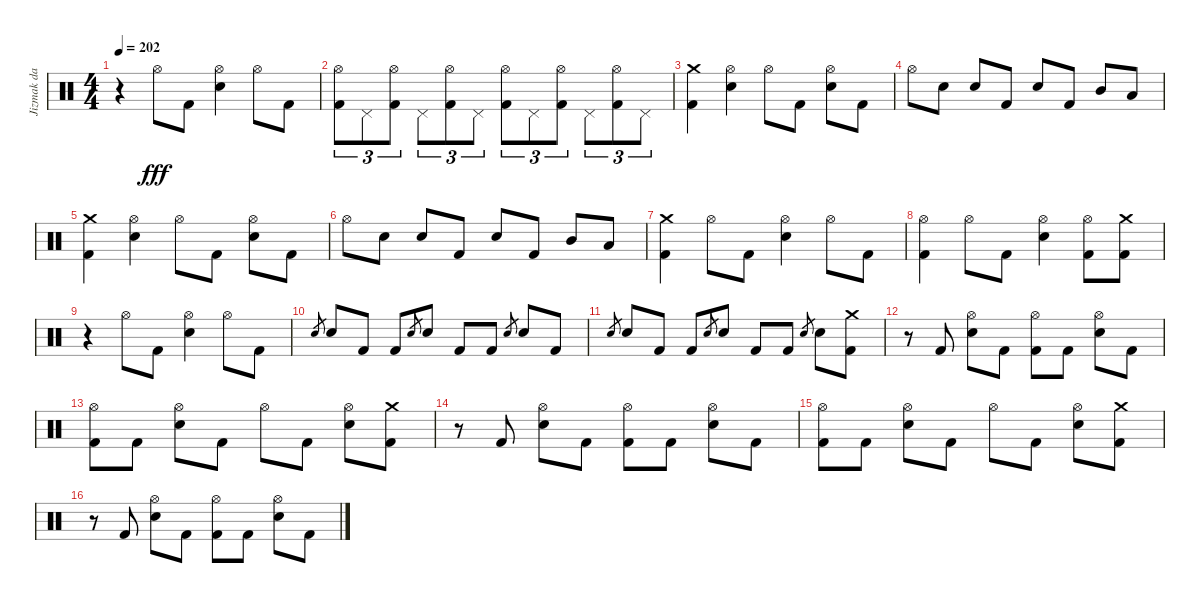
\track ("Jizmak da Gusha" "Jizmak da ") {instrument percussion}
\staff {score}
\articulation defaults
\ts (4 4)
\tempo 202
\clef neutral
\ks c
r.4{dy fff} "Hi-Hat (open)".8 "Kick (hit) 2".8 ("Hi-Hat (open)" "Electric Snare (hit)").4 "Hi-Hat (open)".8 "Kick (hit) 2".8 |
("Hi-Hat (open)" "Kick (hit) 2").8{tu (3 2)} "Pedal Hi-Hat (hit)".8{tu (3 2)} ("Hi-Hat (open)" "Kick (hit) 2").8{tu (3 2)} "Pedal Hi-Hat (hit)".8{tu (3 2)} ("Hi-Hat (open)" "Kick (hit) 2").8{tu (3 2)} "Pedal Hi-Hat (hit)".8{tu (3 2)} ("Hi-Hat (open)" "Kick (hit) 2").8{tu (3 2)} "Pedal Hi-Hat (hit)".8{tu (3 2)} ("Hi-Hat (open)" "Kick (hit) 2").8{tu (3 2)} "Pedal Hi-Hat (hit)".8{tu (3 2)} ("Hi-Hat (open)" "Kick (hit) 2").8{tu (3 2)} "Pedal Hi-Hat (hit)".8{tu (3 2)} |
("Crash medium (hit)" "Kick (hit) 2").4 ("Hi-Hat (open)" "Electric Snare (hit)").4 "Hi-Hat (open)".8 "Kick (hit) 2".8 ("Hi-Hat (open)" "Electric Snare (hit)").8 "Kick (hit) 2".8 |
"Hi-Hat (open)".8 "Electric Snare (hit)".8 "Electric Snare (hit)".8 "Kick (hit) 2".8 "Electric Snare (hit)".8 "Kick (hit) 2".8 "Mid Tom (hit)".8 "Low Tom (hit)".8 |
("Crash medium (hit)" "Kick (hit) 2").4 ("Hi-Hat (open)" "Electric Snare (hit)").4 "Hi-Hat (open)".8 "Kick (hit) 2".8 ("Hi-Hat (open)" "Electric Snare (hit)").8 "Kick (hit) 2".8 |
"Hi-Hat (open)".8 "Electric Snare (hit)".8 "Electric Snare (hit)".8 "Kick (hit) 2".8 "Electric Snare (hit)".8 "Kick (hit) 2".8 "Mid Tom (hit)".8 "Low Tom (hit)".8 |
("Crash medium (hit)" "Kick (hit) 2").4 "Hi-Hat (open)".8 "Kick (hit) 2".8 ("Hi-Hat (open)" "Electric Snare (hit)").4 "Hi-Hat (open)".8 "Kick (hit) 2".8 |
("Hi-Hat (open)" "Kick (hit) 2").4 "Hi-Hat (open)".8 "Kick (hit) 2".8 ("Hi-Hat (open)" "Electric Snare (hit)").4 ("Hi-Hat (open)" "Kick (hit) 2").8 ("Crash medium (hit)" "Kick (hit) 2").8 |
r.4 "Hi-Hat (open)".8 "Kick (hit) 2".8 ("Hi-Hat (open)" "Electric Snare (hit)").4 "Hi-Hat (open)".8 "Kick (hit) 2".8 |
"Electric Snare (hit)".8{gr} "Electric Snare (hit)".8 "Kick (hit) 2".8 "Kick (hit) 2".8 "Electric Snare (hit)".8{gr} "Electric Snare (hit)".8 "Kick (hit) 2".8 "Kick (hit) 2".8 "Electric Snare (hit)".8{gr} "Electric Snare (hit)".8 "Kick (hit) 2".8 |
"Electric Snare (hit)".8{gr} "Electric Snare (hit)".8 "Kick (hit) 2".8 "Kick (hit) 2".8 "Electric Snare (hit)".8{gr} "Electric Snare (hit)".8 "Kick (hit) 2".8 "Kick (hit) 2".8 "Electric Snare (hit)".8{gr} "Electric Snare (hit)".8 ("Crash medium (hit)" "Kick (hit) 2").8 |
r.8 "Kick (hit) 2".8 ("Hi-Hat (open)" "Electric Snare (hit)").8 "Kick (hit) 2".8 ("Hi-Hat (open)" "Kick (hit) 2").8 "Kick (hit) 2".8 ("Hi-Hat (open)" "Electric Snare (hit)").8 "Kick (hit) 2".8 |
("Hi-Hat (open)" "Kick (hit) 2").8 "Kick (hit) 2".8 ("Hi-Hat (open)" "Electric Snare (hit)").8 "Kick (hit) 2".8 "Hi-Hat (open)".8 "Kick (hit) 2".8 ("Hi-Hat (open)" "Electric Snare (hit)").8 ("Crash medium (hit)" "Kick (hit) 2").8 |
r.8 "Kick (hit) 2".8 ("Hi-Hat (open)" "Electric Snare (hit)").8 "Kick (hit) 2".8 ("Hi-Hat (open)" "Kick (hit) 2").8 "Kick (hit) 2".8 ("Hi-Hat (open)" "Electric Snare (hit)").8 "Kick (hit) 2".8 |
("Hi-Hat (open)" "Kick (hit) 2").8 "Kick (hit) 2".8 ("Hi-Hat (open)" "Electric Snare (hit)").8 "Kick (hit) 2".8 "Hi-Hat (open)".8 "Kick (hit) 2".8 ("Hi-Hat (open)" "Electric Snare (hit)").8 ("Crash medium (hit)" "Kick (hit) 2").8 |
r.8 "Kick (hit) 2".8 ("Hi-Hat (open)" "Electric Snare (hit)").8 "Kick (hit) 2".8 ("Hi-Hat (open)" "Kick (hit) 2").8 "Kick (hit) 2".8 ("Hi-Hat (open)" "Electric Snare (hit)").8 "Kick (hit) 2".8
